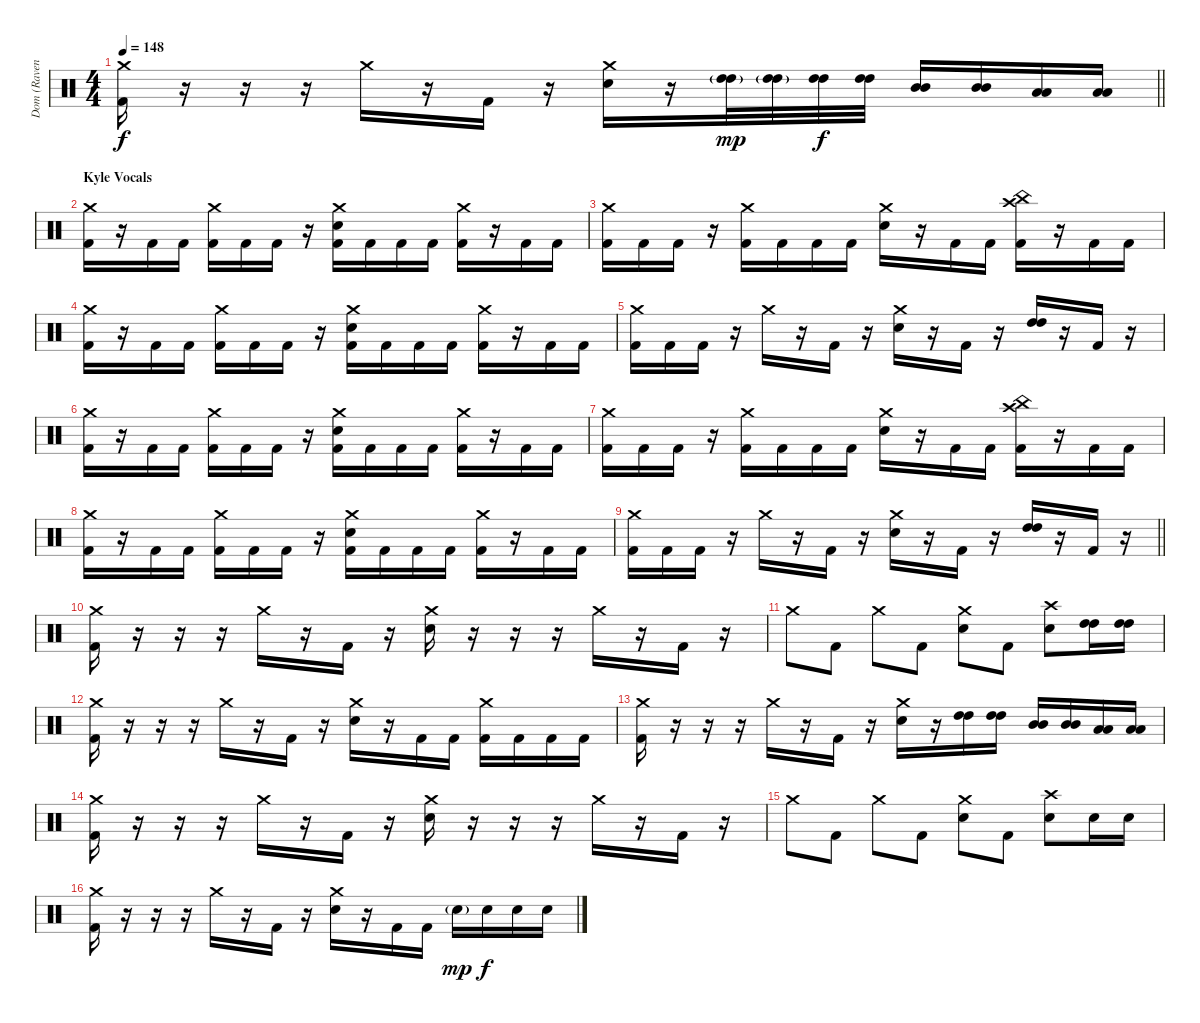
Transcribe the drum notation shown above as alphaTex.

\track ("Dom (Ravenface)" "Dom (Raven") {instrument percussion}
\staff {score}
\articulation defaults
\ts (4 4)
\tempo 148
\clef neutral
\barLineRight lightlight
\ks c
("Crash medium (hit)" "Kick (hit) 2").16{dy f} r.16 r.16 r.16 "Crash medium (hit)".16 r.16 "Kick (hit) 2".16 r.16 ("Crash medium (hit)" "Electric Snare (hit)").16 r.16 ("High Tom (hit)"{g} "High Tom (hit)"{g}).32{dy mp} ("High Tom (hit)"{g} "High Tom (hit)"{g}).32 ("High Tom (hit)" "High Tom (hit)").32{dy f} ("High Tom (hit)" "High Tom (hit)").32 ("Mid Tom (hit)" "Mid Tom (hit)").16 ("Mid Tom (hit)" "Mid Tom (hit)").16 ("Low Tom (hit)" "Low Tom (hit)").16 ("Low Tom (hit)" "Low Tom (hit)").16 |
\section ("" "Kyle Vocals")
("Crash medium (hit)" "Kick (hit) 2").16 r.16 "Kick (hit) 2".16 "Kick (hit) 2".16 ("Crash medium (hit)" "Kick (hit) 2").16 "Kick (hit) 2".16 "Kick (hit) 2".16 r.16 ("Crash medium (hit)" "Electric Snare (hit)" "Kick (hit) 2").16 "Kick (hit) 2".16 "Kick (hit) 2".16 "Kick (hit) 2".16 ("Crash medium (hit)" "Kick (hit) 2").16 r.16 "Kick (hit) 2".16 "Kick (hit) 2".16 |
("Crash medium (hit)" "Kick (hit) 2").16 "Kick (hit) 2".16 "Kick (hit) 2".16 r.16 ("Crash medium (hit)" "Kick (hit) 2").16 "Kick (hit) 2".16 "Kick (hit) 2".16 "Kick (hit) 2".16 ("Crash medium (hit)" "Electric Snare (hit)").16 r.16 "Kick (hit) 2".16 "Kick (hit) 2".16 ("Crash high (hit)" "China (hit)" "Kick (hit) 2").16 r.16 "Kick (hit) 2".16 "Kick (hit) 2".16 |
("Crash medium (hit)" "Kick (hit) 2").16 r.16 "Kick (hit) 2".16 "Kick (hit) 2".16 ("Crash medium (hit)" "Kick (hit) 2").16 "Kick (hit) 2".16 "Kick (hit) 2".16 r.16 ("Crash medium (hit)" "Electric Snare (hit)" "Kick (hit) 2").16 "Kick (hit) 2".16 "Kick (hit) 2".16 "Kick (hit) 2".16 ("Crash medium (hit)" "Kick (hit) 2").16 r.16 "Kick (hit) 2".16 "Kick (hit) 2".16 |
("Crash medium (hit)" "Kick (hit) 2").16 "Kick (hit) 2".16 "Kick (hit) 2".16 r.16 "Crash medium (hit)".16 r.16 "Kick (hit) 2".16 r.16 ("Crash medium (hit)" "Electric Snare (hit)").16 r.16 "Kick (hit) 2".16 r.16 ("High Tom (hit)" "High Tom (hit)").16 r.16 "Kick (hit) 2".16 r.16 |
("Crash medium (hit)" "Kick (hit) 2").16 r.16 "Kick (hit) 2".16 "Kick (hit) 2".16 ("Crash medium (hit)" "Kick (hit) 2").16 "Kick (hit) 2".16 "Kick (hit) 2".16 r.16 ("Crash medium (hit)" "Electric Snare (hit)" "Kick (hit) 2").16 "Kick (hit) 2".16 "Kick (hit) 2".16 "Kick (hit) 2".16 ("Crash medium (hit)" "Kick (hit) 2").16 r.16 "Kick (hit) 2".16 "Kick (hit) 2".16 |
("Crash medium (hit)" "Kick (hit) 2").16 "Kick (hit) 2".16 "Kick (hit) 2".16 r.16 ("Crash medium (hit)" "Kick (hit) 2").16 "Kick (hit) 2".16 "Kick (hit) 2".16 "Kick (hit) 2".16 ("Crash medium (hit)" "Electric Snare (hit)").16 r.16 "Kick (hit) 2".16 "Kick (hit) 2".16 ("Crash high (hit)" "China (hit)" "Kick (hit) 2").16 r.16 "Kick (hit) 2".16 "Kick (hit) 2".16 |
("Crash medium (hit)" "Kick (hit) 2").16 r.16 "Kick (hit) 2".16 "Kick (hit) 2".16 ("Crash medium (hit)" "Kick (hit) 2").16 "Kick (hit) 2".16 "Kick (hit) 2".16 r.16 ("Crash medium (hit)" "Electric Snare (hit)" "Kick (hit) 2").16 "Kick (hit) 2".16 "Kick (hit) 2".16 "Kick (hit) 2".16 ("Crash medium (hit)" "Kick (hit) 2").16 r.16 "Kick (hit) 2".16 "Kick (hit) 2".16 |
\barLineRight lightlight
("Crash medium (hit)" "Kick (hit) 2").16 "Kick (hit) 2".16 "Kick (hit) 2".16 r.16 "Crash medium (hit)".16 r.16 "Kick (hit) 2".16 r.16 ("Crash medium (hit)" "Electric Snare (hit)").16 r.16 "Kick (hit) 2".16 r.16 ("High Tom (hit)" "High Tom (hit)").16 r.16 "Kick (hit) 2".16 r.16 |
\section ("" "")
("Crash medium (hit)" "Kick (hit) 2").16 r.16 r.16 r.16 "Crash medium (hit)".16 r.16 "Kick (hit) 2".16 r.16 ("Crash medium (hit)" "Electric Snare (hit)").16 r.16 r.16 r.16 "Crash medium (hit)".16 r.16 "Kick (hit) 2".16 r.16 |
"Crash medium (hit)".8 "Kick (hit) 2".8 "Crash medium (hit)".8 "Kick (hit) 2".8 ("Crash medium (hit)" "Electric Snare (hit)").8 "Kick (hit) 2".8 ("Crash high (hit)" "Electric Snare (hit)").8 ("High Tom (hit)" "High Tom (hit)").16 ("High Tom (hit)" "High Tom (hit)").16 |
("Crash medium (hit)" "Kick (hit) 2").16 r.16 r.16 r.16 "Crash medium (hit)".16 r.16 "Kick (hit) 2".16 r.16 ("Crash medium (hit)" "Electric Snare (hit)").16 r.16 "Kick (hit) 2".16 "Kick (hit) 2".16 ("Crash medium (hit)" "Kick (hit) 2").16 "Kick (hit) 2".16 "Kick (hit) 2".16 "Kick (hit) 2".16 |
("Crash medium (hit)" "Kick (hit) 2").16 r.16 r.16 r.16 "Crash medium (hit)".16 r.16 "Kick (hit) 2".16 r.16 ("Crash medium (hit)" "Electric Snare (hit)").16 r.16 ("High Tom (hit)" "High Tom (hit)").16 ("High Tom (hit)" "High Tom (hit)").16 ("Mid Tom (hit)" "Mid Tom (hit)").16 ("Mid Tom (hit)" "Mid Tom (hit)").16 ("Low Tom (hit)" "Low Tom (hit)").16 ("Low Tom (hit)" "Low Tom (hit)").16 |
("Crash medium (hit)" "Kick (hit) 2").16 r.16 r.16 r.16 "Crash medium (hit)".16 r.16 "Kick (hit) 2".16 r.16 ("Crash medium (hit)" "Electric Snare (hit)").16 r.16 r.16 r.16 "Crash medium (hit)".16 r.16 "Kick (hit) 2".16 r.16 |
"Crash medium (hit)".8 "Kick (hit) 2".8 "Crash medium (hit)".8 "Kick (hit) 2".8 ("Crash medium (hit)" "Electric Snare (hit)").8 "Kick (hit) 2".8 ("Crash high (hit)" "Electric Snare (hit)").8 "Electric Snare (hit)".16 "Electric Snare (hit)".16 |
("Crash medium (hit)" "Kick (hit) 2").16 r.16 r.16 r.16 "Crash medium (hit)".16 r.16 "Kick (hit) 2".16 r.16 ("Crash medium (hit)" "Electric Snare (hit)").16 r.16 "Kick (hit) 2".16 "Kick (hit) 2".16 "Electric Snare (hit)"{g}.16{dy mp} "Electric Snare (hit)".16{dy f} "Electric Snare (hit)".16 "Electric Snare (hit)".16
